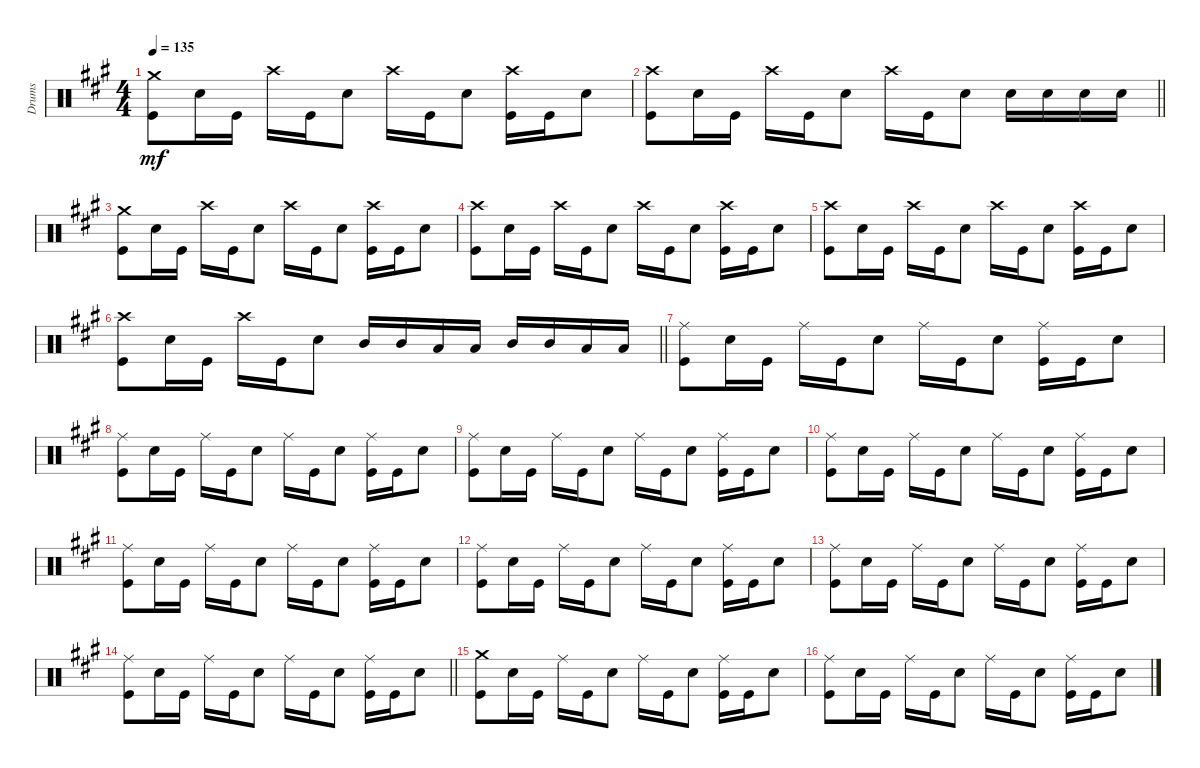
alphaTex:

\track ("Drums" "Drums") {instrument percussion}
\staff {score}
\articulation defaults
\ts (4 4)
\tempo 135
\clef neutral
\ks a
("Kick (hit)" "Crash medium (hit)").8{dy mf} "Snare (hit) 2".16 "Kick (hit)".16 "Crash high (hit)".16 "Kick (hit)".16 "Snare (hit) 2".8 "Crash high (hit)".16 "Kick (hit)".16 "Snare (hit) 2".8 ("Kick (hit)" "Crash high (hit)").16 "Kick (hit)".16 "Snare (hit) 2".8 |
\barLineRight lightlight
("Kick (hit)" "Crash high (hit)").8 "Snare (hit) 2".16 "Kick (hit)".16 "Crash high (hit)".16 "Kick (hit)".16 "Snare (hit) 2".8 "Crash high (hit)".16 "Kick (hit)".16 "Snare (hit) 2".8 "Snare (hit) 2".16 "Snare (hit) 2".16 "Snare (hit) 2".16 "Snare (hit) 2".16 |
("Kick (hit)" "Crash medium (hit)").8 "Snare (hit) 2".16 "Kick (hit)".16 "Crash high (hit)".16 "Kick (hit)".16 "Snare (hit) 2".8 "Crash high (hit)".16 "Kick (hit)".16 "Snare (hit) 2".8 ("Kick (hit)" "Crash high (hit)").16 "Kick (hit)".16 "Snare (hit) 2".8 |
("Kick (hit)" "Crash high (hit)").8 "Snare (hit) 2".16 "Kick (hit)".16 "Crash high (hit)".16 "Kick (hit)".16 "Snare (hit) 2".8 "Crash high (hit)".16 "Kick (hit)".16 "Snare (hit) 2".8 ("Kick (hit)" "Crash high (hit)").16 "Kick (hit)".16 "Snare (hit) 2".8 |
("Kick (hit)" "Crash high (hit)").8 "Snare (hit) 2".16 "Kick (hit)".16 "Crash high (hit)".16 "Kick (hit)".16 "Snare (hit) 2".8 "Crash high (hit)".16 "Kick (hit)".16 "Snare (hit) 2".8 ("Kick (hit)" "Crash high (hit)").16 "Kick (hit)".16 "Snare (hit) 2".8 |
\barLineRight lightlight
("Kick (hit)" "Crash high (hit)").8 "Snare (hit) 2".16 "Kick (hit)".16 "Crash high (hit)".16 "Kick (hit)".16 "Snare (hit) 2".8 "Mid Tom (hit)".16 "Mid Tom (hit)".16 "Low Tom (hit)".16 "Low Tom (hit)".16 "Mid Tom (hit)".16 "Mid Tom (hit)".16 "Low Tom (hit)".16 "Low Tom (hit)".16 |
("Kick (hit)" "Ride (middle)").8 "Snare (hit) 2".16 "Kick (hit)".16 "Ride (middle)".16 "Kick (hit)".16 "Snare (hit) 2".8 "Ride (middle)".16 "Kick (hit)".16 "Snare (hit) 2".8 ("Kick (hit)" "Ride (middle)").16 "Kick (hit)".16 "Snare (hit) 2".8 |
("Kick (hit)" "Ride (middle)").8 "Snare (hit) 2".16 "Kick (hit)".16 "Ride (middle)".16 "Kick (hit)".16 "Snare (hit) 2".8 "Ride (middle)".16 "Kick (hit)".16 "Snare (hit) 2".8 ("Kick (hit)" "Ride (middle)").16 "Kick (hit)".16 "Snare (hit) 2".8 |
("Kick (hit)" "Ride (middle)").8 "Snare (hit) 2".16 "Kick (hit)".16 "Ride (middle)".16 "Kick (hit)".16 "Snare (hit) 2".8 "Ride (middle)".16 "Kick (hit)".16 "Snare (hit) 2".8 ("Kick (hit)" "Ride (middle)").16 "Kick (hit)".16 "Snare (hit) 2".8 |
("Kick (hit)" "Ride (middle)").8 "Snare (hit) 2".16 "Kick (hit)".16 "Ride (middle)".16 "Kick (hit)".16 "Snare (hit) 2".8 "Ride (middle)".16 "Kick (hit)".16 "Snare (hit) 2".8 ("Kick (hit)" "Ride (middle)").16 "Kick (hit)".16 "Snare (hit) 2".8 |
("Kick (hit)" "Ride (middle)").8 "Snare (hit) 2".16 "Kick (hit)".16 "Ride (middle)".16 "Kick (hit)".16 "Snare (hit) 2".8 "Ride (middle)".16 "Kick (hit)".16 "Snare (hit) 2".8 ("Kick (hit)" "Ride (middle)").16 "Kick (hit)".16 "Snare (hit) 2".8 |
("Kick (hit)" "Ride (middle)").8 "Snare (hit) 2".16 "Kick (hit)".16 "Ride (middle)".16 "Kick (hit)".16 "Snare (hit) 2".8 "Ride (middle)".16 "Kick (hit)".16 "Snare (hit) 2".8 ("Kick (hit)" "Ride (middle)").16 "Kick (hit)".16 "Snare (hit) 2".8 |
("Kick (hit)" "Ride (middle)").8 "Snare (hit) 2".16 "Kick (hit)".16 "Ride (middle)".16 "Kick (hit)".16 "Snare (hit) 2".8 "Ride (middle)".16 "Kick (hit)".16 "Snare (hit) 2".8 ("Kick (hit)" "Ride (middle)").16 "Kick (hit)".16 "Snare (hit) 2".8 |
\barLineRight lightlight
("Kick (hit)" "Ride (middle)").8 "Snare (hit) 2".16 "Kick (hit)".16 "Ride (middle)".16 "Kick (hit)".16 "Snare (hit) 2".8 "Ride (middle)".16 "Kick (hit)".16 "Snare (hit) 2".8 ("Kick (hit)" "Ride (middle)").16 "Kick (hit)".16 "Snare (hit) 2".8 |
("Kick (hit)" "Crash medium (hit)").8 "Snare (hit) 2".16 "Kick (hit)".16 "Ride (middle)".16 "Kick (hit)".16 "Snare (hit) 2".8 "Ride (middle)".16 "Kick (hit)".16 "Snare (hit) 2".8 ("Kick (hit)" "Ride (middle)").16 "Kick (hit)".16 "Snare (hit) 2".8 |
("Kick (hit)" "Ride (middle)").8 "Snare (hit) 2".16 "Kick (hit)".16 "Ride (middle)".16 "Kick (hit)".16 "Snare (hit) 2".8 "Ride (middle)".16 "Kick (hit)".16 "Snare (hit) 2".8 ("Kick (hit)" "Ride (middle)").16 "Kick (hit)".16 "Snare (hit) 2".8
